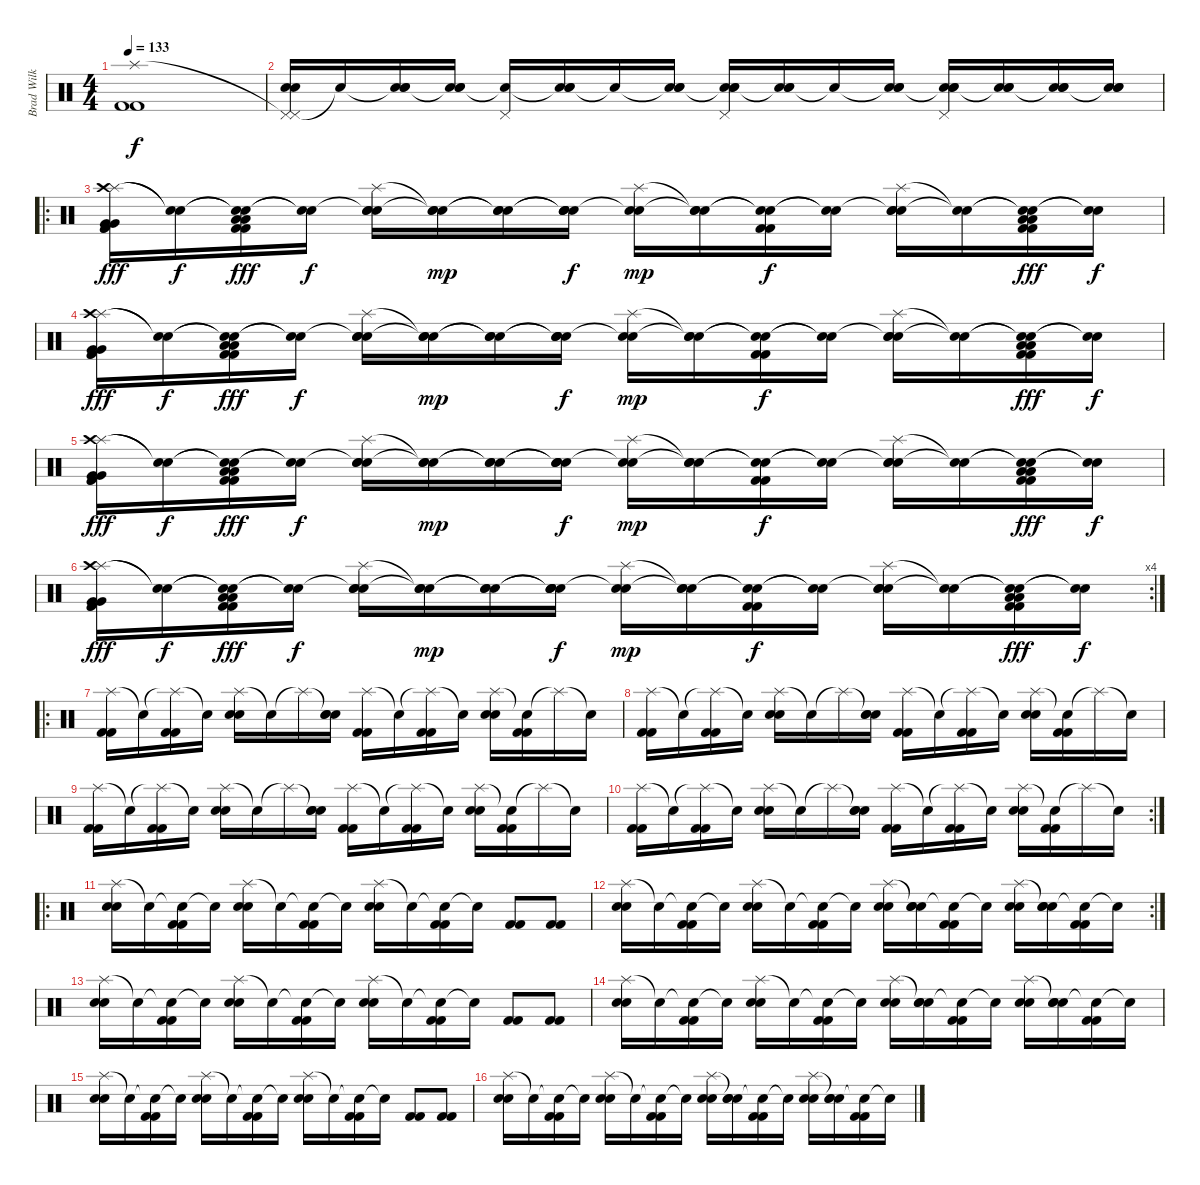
\track ("Brad Wilk" "Brad Wilk") {instrument percussion}
\staff {score}
\articulation defaults
\ts (4 4)
\tempo 133
\clef neutral
\ks c
("Splash (hit)" "Kick (hit) 2" "Kick (hit) 2").1{dy f} |
("Pedal Hi-Hat (hit)"{t} "Pedal Hi-Hat (hit)" "Electric Snare (hit)" "Electric Snare (hit)").16 "Snare (hit)"{t}.16 ("Snare (hit)"{t} "Electric Snare (hit)" "Electric Snare (hit)").16 ("Snare (hit)"{t} "Electric Snare (hit)" "Electric Snare (hit)").16 ("Snare (hit)"{t} "Pedal Hi-Hat (hit)").16 ("Snare (hit)"{t} "Electric Snare (hit)" "Electric Snare (hit)").16 "Snare (hit)"{t}.16 ("Snare (hit)"{t} "Electric Snare (hit)" "Electric Snare (hit)").16 ("Snare (hit)"{t} "Pedal Hi-Hat (hit)" "Electric Snare (hit)" "Electric Snare (hit)").16 ("Snare (hit)"{t} "Electric Snare (hit)" "Electric Snare (hit)").16 "Snare (hit)"{t}.16 ("Snare (hit)"{t} "Electric Snare (hit)" "Electric Snare (hit)").16 ("Snare (hit)"{t} "Pedal Hi-Hat (hit)" "Electric Snare (hit)" "Electric Snare (hit)").16 ("Snare (hit)"{t} "Electric Snare (hit)" "Electric Snare (hit)").16 ("Snare (hit)"{t} "Electric Snare (hit)" "Electric Snare (hit)").16 ("Snare (hit)"{t} "Electric Snare (hit)" "Electric Snare (hit)").16 |
\ro
("Splash (hit)" "Crash high (hit)" "Kick (hit) 2" "Kick (hit) 2" "Very Low Tom (hit)" "Very Low Tom (hit)").16{dy fff} ("Snare (hit)"{t} "Snare (hit)"{t}).16{dy f} ("Snare (hit)"{t} "Snare (hit)"{t} "Kick (hit) 2" "Kick (hit) 2" "Low Floor Tom (hit)" "Low Floor Tom (hit)").16{dy fff} ("Snare (hit)"{t} "Snare (hit)"{t}).16{dy f} ("Splash (hit)" "Snare (hit)"{t} "Electric Snare (hit)" "Electric Snare (hit)").16 ("Snare (hit)"{t} "Snare (hit)"{t} "Electric Snare (hit)").16{dy mp} ("Snare (hit)"{t} "Snare (hit)"{t} "Electric Snare (hit)").16 ("Snare (hit)"{t} "Snare (hit)"{t} "Electric Snare (hit)" "Electric Snare (hit)").16{dy f} ("Splash (hit)" "Snare (hit)"{t} "Electric Snare (hit)").16{dy mp} ("Snare (hit)"{t} "Snare (hit)"{t} "Electric Snare (hit)").16 ("Snare (hit)"{t} "Snare (hit)"{t} "Kick (hit) 2" "Kick (hit) 2").16{dy f} ("Snare (hit)"{t} "Snare (hit)"{t}).16 ("Splash (hit)" "Snare (hit)"{t} "Electric Snare (hit)" "Electric Snare (hit)").16 ("Snare (hit)"{t} "Snare (hit)"{t}).16 ("Snare (hit)"{t} "Snare (hit)"{t} "Kick (hit) 2" "Kick (hit) 2" "Low Tom (hit)" "Low Tom (hit)").16{dy fff} ("Snare (hit)"{t} "Snare (hit)"{t}).16{dy f} |
("Splash (hit)" "Crash high (hit)" "Kick (hit) 2" "Kick (hit) 2" "Very Low Tom (hit)" "Very Low Tom (hit)").16{dy fff} ("Snare (hit)"{t} "Snare (hit)"{t}).16{dy f} ("Snare (hit)"{t} "Snare (hit)"{t} "Kick (hit) 2" "Kick (hit) 2" "Low Floor Tom (hit)" "Low Floor Tom (hit)").16{dy fff} ("Snare (hit)"{t} "Snare (hit)"{t}).16{dy f} ("Splash (hit)" "Snare (hit)"{t} "Electric Snare (hit)" "Electric Snare (hit)").16 ("Snare (hit)"{t} "Snare (hit)"{t} "Electric Snare (hit)").16{dy mp} ("Snare (hit)"{t} "Snare (hit)"{t} "Electric Snare (hit)").16 ("Snare (hit)"{t} "Snare (hit)"{t} "Electric Snare (hit)" "Electric Snare (hit)").16{dy f} ("Splash (hit)" "Snare (hit)"{t} "Electric Snare (hit)").16{dy mp} ("Snare (hit)"{t} "Snare (hit)"{t} "Electric Snare (hit)").16 ("Snare (hit)"{t} "Snare (hit)"{t} "Kick (hit) 2" "Kick (hit) 2").16{dy f} ("Snare (hit)"{t} "Snare (hit)"{t}).16 ("Splash (hit)" "Snare (hit)"{t} "Electric Snare (hit)" "Electric Snare (hit)").16 ("Snare (hit)"{t} "Snare (hit)"{t}).16 ("Snare (hit)"{t} "Snare (hit)"{t} "Kick (hit) 2" "Kick (hit) 2" "Low Tom (hit)" "Low Tom (hit)").16{dy fff} ("Snare (hit)"{t} "Snare (hit)"{t}).16{dy f} |
("Splash (hit)" "Crash high (hit)" "Kick (hit) 2" "Kick (hit) 2" "Very Low Tom (hit)" "Very Low Tom (hit)").16{dy fff} ("Snare (hit)"{t} "Snare (hit)"{t}).16{dy f} ("Snare (hit)"{t} "Snare (hit)"{t} "Kick (hit) 2" "Kick (hit) 2" "Low Floor Tom (hit)" "Low Floor Tom (hit)").16{dy fff} ("Snare (hit)"{t} "Snare (hit)"{t}).16{dy f} ("Splash (hit)" "Snare (hit)"{t} "Electric Snare (hit)" "Electric Snare (hit)").16 ("Snare (hit)"{t} "Snare (hit)"{t} "Electric Snare (hit)").16{dy mp} ("Snare (hit)"{t} "Snare (hit)"{t} "Electric Snare (hit)").16 ("Snare (hit)"{t} "Snare (hit)"{t} "Electric Snare (hit)" "Electric Snare (hit)").16{dy f} ("Splash (hit)" "Snare (hit)"{t} "Electric Snare (hit)").16{dy mp} ("Snare (hit)"{t} "Snare (hit)"{t} "Electric Snare (hit)").16 ("Snare (hit)"{t} "Snare (hit)"{t} "Kick (hit) 2" "Kick (hit) 2").16{dy f} ("Snare (hit)"{t} "Snare (hit)"{t}).16 ("Splash (hit)" "Snare (hit)"{t} "Electric Snare (hit)" "Electric Snare (hit)").16 ("Snare (hit)"{t} "Snare (hit)"{t}).16 ("Snare (hit)"{t} "Snare (hit)"{t} "Kick (hit) 2" "Kick (hit) 2" "Low Tom (hit)" "Low Tom (hit)").16{dy fff} ("Snare (hit)"{t} "Snare (hit)"{t}).16{dy f} |
\rc 4
("Splash (hit)" "Crash high (hit)" "Kick (hit) 2" "Kick (hit) 2" "Very Low Tom (hit)" "Very Low Tom (hit)").16{dy fff} ("Snare (hit)"{t} "Snare (hit)"{t}).16{dy f} ("Snare (hit)"{t} "Snare (hit)"{t} "Kick (hit) 2" "Kick (hit) 2" "Low Floor Tom (hit)" "Low Floor Tom (hit)").16{dy fff} ("Snare (hit)"{t} "Snare (hit)"{t}).16{dy f} ("Splash (hit)" "Snare (hit)"{t} "Electric Snare (hit)" "Electric Snare (hit)").16 ("Snare (hit)"{t} "Snare (hit)"{t} "Electric Snare (hit)").16{dy mp} ("Snare (hit)"{t} "Snare (hit)"{t} "Electric Snare (hit)").16 ("Snare (hit)"{t} "Snare (hit)"{t} "Electric Snare (hit)" "Electric Snare (hit)").16{dy f} ("Splash (hit)" "Snare (hit)"{t} "Electric Snare (hit)").16{dy mp} ("Snare (hit)"{t} "Snare (hit)"{t} "Electric Snare (hit)").16 ("Snare (hit)"{t} "Snare (hit)"{t} "Kick (hit) 2" "Kick (hit) 2").16{dy f} ("Snare (hit)"{t} "Snare (hit)"{t}).16 ("Splash (hit)" "Snare (hit)"{t} "Electric Snare (hit)" "Electric Snare (hit)").16 ("Snare (hit)"{t} "Snare (hit)"{t}).16 ("Snare (hit)"{t} "Snare (hit)"{t} "Kick (hit) 2" "Kick (hit) 2" "Low Tom (hit)" "Low Tom (hit)").16{dy fff} ("Snare (hit)"{t} "Snare (hit)"{t}).16{dy f} |
\ro
("Splash (hit)" "Kick (hit) 2" "Kick (hit) 2").16 "Snare (hit)"{t}.16 ("Splash (hit)"{t} "Kick (hit) 2" "Kick (hit) 2").16 "Snare (hit)"{t}.16 ("Splash (hit)" "Electric Snare (hit)" "Electric Snare (hit)").16 "Snare (hit)"{t}.16 "Splash (hit)"{t}.16 ("Snare (hit)"{t} "Electric Snare (hit)" "Electric Snare (hit)").16 ("Splash (hit)" "Kick (hit) 2" "Kick (hit) 2").16 "Snare (hit)"{t}.16 ("Splash (hit)"{t} "Kick (hit) 2" "Kick (hit) 2").16 "Snare (hit)"{t}.16 ("Splash (hit)" "Electric Snare (hit)" "Electric Snare (hit)").16 ("Snare (hit)"{t} "Kick (hit) 2" "Kick (hit) 2").16 "Splash (hit)"{t}.16 "Snare (hit)"{t}.16 |
("Splash (hit)" "Kick (hit) 2" "Kick (hit) 2").16 "Snare (hit)"{t}.16 ("Splash (hit)"{t} "Kick (hit) 2" "Kick (hit) 2").16 "Snare (hit)"{t}.16 ("Splash (hit)" "Electric Snare (hit)" "Electric Snare (hit)").16 "Snare (hit)"{t}.16 "Splash (hit)"{t}.16 ("Snare (hit)"{t} "Electric Snare (hit)" "Electric Snare (hit)").16 ("Splash (hit)" "Kick (hit) 2" "Kick (hit) 2").16 "Snare (hit)"{t}.16 ("Splash (hit)"{t} "Kick (hit) 2" "Kick (hit) 2").16 "Snare (hit)"{t}.16 ("Splash (hit)" "Electric Snare (hit)" "Electric Snare (hit)").16 ("Snare (hit)"{t} "Kick (hit) 2" "Kick (hit) 2").16 "Splash (hit)"{t}.16 "Snare (hit)"{t}.16 |
("Splash (hit)" "Kick (hit) 2" "Kick (hit) 2").16 "Snare (hit)"{t}.16 ("Splash (hit)"{t} "Kick (hit) 2" "Kick (hit) 2").16 "Snare (hit)"{t}.16 ("Splash (hit)" "Electric Snare (hit)" "Electric Snare (hit)").16 "Snare (hit)"{t}.16 "Splash (hit)"{t}.16 ("Snare (hit)"{t} "Electric Snare (hit)" "Electric Snare (hit)").16 ("Splash (hit)" "Kick (hit) 2" "Kick (hit) 2").16 "Snare (hit)"{t}.16 ("Splash (hit)"{t} "Kick (hit) 2" "Kick (hit) 2").16 "Snare (hit)"{t}.16 ("Splash (hit)" "Electric Snare (hit)" "Electric Snare (hit)").16 ("Snare (hit)"{t} "Kick (hit) 2" "Kick (hit) 2").16 "Splash (hit)"{t}.16 "Snare (hit)"{t}.16 |
\rc 2
("Splash (hit)" "Kick (hit) 2" "Kick (hit) 2").16 "Snare (hit)"{t}.16 ("Splash (hit)"{t} "Kick (hit) 2" "Kick (hit) 2").16 "Snare (hit)"{t}.16 ("Splash (hit)" "Electric Snare (hit)" "Electric Snare (hit)").16 "Snare (hit)"{t}.16 "Splash (hit)"{t}.16 ("Snare (hit)"{t} "Electric Snare (hit)" "Electric Snare (hit)").16 ("Splash (hit)" "Kick (hit) 2" "Kick (hit) 2").16 "Snare (hit)"{t}.16 ("Splash (hit)"{t} "Kick (hit) 2" "Kick (hit) 2").16 "Snare (hit)"{t}.16 ("Splash (hit)" "Electric Snare (hit)" "Electric Snare (hit)").16 ("Snare (hit)"{t} "Kick (hit) 2" "Kick (hit) 2").16 "Splash (hit)"{t}.16 "Snare (hit)"{t}.16 |
\ro
("Splash (hit)" "Electric Snare (hit)" "Electric Snare (hit)").16 "Snare (hit)"{t}.16 ("Snare (hit)"{t} "Kick (hit) 2" "Kick (hit) 2").16 "Snare (hit)"{t}.16 ("Splash (hit)" "Electric Snare (hit)" "Electric Snare (hit)").16 "Snare (hit)"{t}.16 ("Snare (hit)"{t} "Kick (hit) 2" "Kick (hit) 2").16 "Snare (hit)"{t}.16 ("Splash (hit)" "Electric Snare (hit)" "Electric Snare (hit)").16 "Snare (hit)"{t}.16 ("Snare (hit)"{t} "Kick (hit) 2" "Kick (hit) 2").16 "Snare (hit)"{t}.16 ("Kick (hit) 2" "Kick (hit) 2").8 ("Kick (hit) 2" "Kick (hit) 2").8 |
\rc 2
("Splash (hit)" "Electric Snare (hit)" "Electric Snare (hit)").16 "Snare (hit)"{t}.16 ("Snare (hit)"{t} "Kick (hit) 2" "Kick (hit) 2").16 "Snare (hit)"{t}.16 ("Splash (hit)" "Electric Snare (hit)" "Electric Snare (hit)").16 "Snare (hit)"{t}.16 ("Snare (hit)"{t} "Kick (hit) 2" "Kick (hit) 2").16 "Snare (hit)"{t}.16 ("Splash (hit)" "Electric Snare (hit)" "Electric Snare (hit)").16 ("Snare (hit)"{t} "Electric Snare (hit)" "Electric Snare (hit)").16 ("Snare (hit)"{t} "Kick (hit) 2" "Kick (hit) 2").16 "Snare (hit)"{t}.16 ("Splash (hit)" "Electric Snare (hit)" "Electric Snare (hit)").16 ("Snare (hit)"{t} "Electric Snare (hit)" "Electric Snare (hit)").16 ("Snare (hit)"{t} "Kick (hit) 2" "Kick (hit) 2").16 "Snare (hit)"{t}.16 |
("Splash (hit)" "Electric Snare (hit)" "Electric Snare (hit)").16 "Snare (hit)"{t}.16 ("Snare (hit)"{t} "Kick (hit) 2" "Kick (hit) 2").16 "Snare (hit)"{t}.16 ("Splash (hit)" "Electric Snare (hit)" "Electric Snare (hit)").16 "Snare (hit)"{t}.16 ("Snare (hit)"{t} "Kick (hit) 2" "Kick (hit) 2").16 "Snare (hit)"{t}.16 ("Splash (hit)" "Electric Snare (hit)" "Electric Snare (hit)").16 "Snare (hit)"{t}.16 ("Snare (hit)"{t} "Kick (hit) 2" "Kick (hit) 2").16 "Snare (hit)"{t}.16 ("Kick (hit) 2" "Kick (hit) 2").8 ("Kick (hit) 2" "Kick (hit) 2").8 |
("Splash (hit)" "Electric Snare (hit)" "Electric Snare (hit)").16 "Snare (hit)"{t}.16 ("Snare (hit)"{t} "Kick (hit) 2" "Kick (hit) 2").16 "Snare (hit)"{t}.16 ("Splash (hit)" "Electric Snare (hit)" "Electric Snare (hit)").16 "Snare (hit)"{t}.16 ("Snare (hit)"{t} "Kick (hit) 2" "Kick (hit) 2").16 "Snare (hit)"{t}.16 ("Splash (hit)" "Electric Snare (hit)" "Electric Snare (hit)").16 ("Snare (hit)"{t} "Electric Snare (hit)" "Electric Snare (hit)").16 ("Snare (hit)"{t} "Kick (hit) 2" "Kick (hit) 2").16 "Snare (hit)"{t}.16 ("Splash (hit)" "Electric Snare (hit)" "Electric Snare (hit)").16 ("Snare (hit)"{t} "Electric Snare (hit)" "Electric Snare (hit)").16 ("Snare (hit)"{t} "Kick (hit) 2" "Kick (hit) 2").16 "Snare (hit)"{t}.16 |
("Splash (hit)" "Electric Snare (hit)" "Electric Snare (hit)").16 "Snare (hit)"{t}.16 ("Snare (hit)"{t} "Kick (hit) 2" "Kick (hit) 2").16 "Snare (hit)"{t}.16 ("Splash (hit)" "Electric Snare (hit)" "Electric Snare (hit)").16 "Snare (hit)"{t}.16 ("Snare (hit)"{t} "Kick (hit) 2" "Kick (hit) 2").16 "Snare (hit)"{t}.16 ("Splash (hit)" "Electric Snare (hit)" "Electric Snare (hit)").16 "Snare (hit)"{t}.16 ("Snare (hit)"{t} "Kick (hit) 2" "Kick (hit) 2").16 "Snare (hit)"{t}.16 ("Kick (hit) 2" "Kick (hit) 2").8 ("Kick (hit) 2" "Kick (hit) 2").8 |
("Splash (hit)" "Electric Snare (hit)" "Electric Snare (hit)").16 "Snare (hit)"{t}.16 ("Snare (hit)"{t} "Kick (hit) 2" "Kick (hit) 2").16 "Snare (hit)"{t}.16 ("Splash (hit)" "Electric Snare (hit)" "Electric Snare (hit)").16 "Snare (hit)"{t}.16 ("Snare (hit)"{t} "Kick (hit) 2" "Kick (hit) 2").16 "Snare (hit)"{t}.16 ("Splash (hit)" "Electric Snare (hit)" "Electric Snare (hit)").16 ("Snare (hit)"{t} "Electric Snare (hit)" "Electric Snare (hit)").16 ("Snare (hit)"{t} "Kick (hit) 2" "Kick (hit) 2").16 "Snare (hit)"{t}.16 ("Splash (hit)" "Electric Snare (hit)" "Electric Snare (hit)").16 ("Snare (hit)"{t} "Electric Snare (hit)" "Electric Snare (hit)").16 ("Snare (hit)"{t} "Kick (hit) 2" "Kick (hit) 2").16 "Snare (hit)"{t}.16
